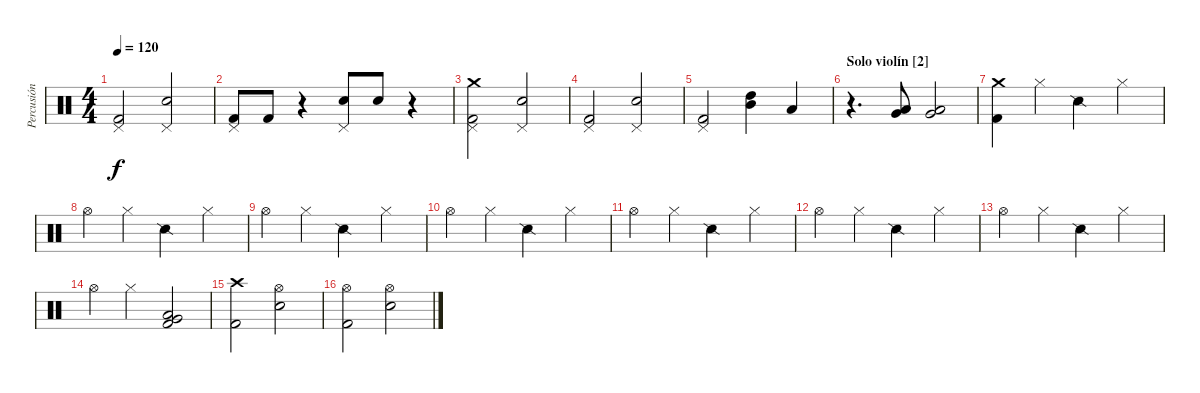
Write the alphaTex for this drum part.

\track ("Percusión" "Percusión") {instrument percussion}
\staff {score}
\articulation defaults
\ts (4 4)
\tempo 120
\clef neutral
\ks c
("Pedal Hi-Hat (hit)" "Kick (hit) 2").2{dy f} ("Pedal Hi-Hat (hit)" "Snare (hit) 2").2 |
("Pedal Hi-Hat (hit)" "Kick (hit) 2").8 "Kick (hit) 2".8 r.4 ("Pedal Hi-Hat (hit)" "Snare (hit) 2").8 "Snare (hit) 2".8 r.4 |
("Crash medium (hit)" "Pedal Hi-Hat (hit)" "Kick (hit) 2").2 ("Pedal Hi-Hat (hit)" "Snare (hit) 2").2 |
("Pedal Hi-Hat (hit)" "Kick (hit) 2").2 ("Pedal Hi-Hat (hit)" "Snare (hit) 2").2 |
("Pedal Hi-Hat (hit)" "Kick (hit) 2").2 ("High Tom (hit)" "Mid Tom (hit)").4 "Low Tom (hit)".4 |
\section ("" "Solo violín [2]")
r.4{d} ("Low Tom (hit)" "Very Low Tom (hit)").8 ("Low Tom (hit)" "Very Low Tom (hit)").2 |
("Crash medium (hit)" "Kick (hit) 2").4 "Hi-Hat (closed)".4 "Snare (side stick) 2".4 "Hi-Hat (closed)".4 |
"Hi-Hat (open)".4 "Hi-Hat (closed)".4 "Snare (side stick) 2".4 "Hi-Hat (closed)".4 |
"Hi-Hat (open)".4 "Hi-Hat (closed)".4 "Snare (side stick) 2".4 "Hi-Hat (closed)".4 |
"Hi-Hat (open)".4 "Hi-Hat (closed)".4 "Snare (side stick) 2".4 "Hi-Hat (closed)".4 |
"Hi-Hat (open)".4 "Hi-Hat (closed)".4 "Snare (side stick) 2".4 "Hi-Hat (closed)".4 |
"Hi-Hat (open)".4 "Hi-Hat (closed)".4 "Snare (side stick) 2".4 "Hi-Hat (closed)".4 |
"Hi-Hat (open)".4 "Hi-Hat (closed)".4 "Snare (side stick) 2".4 "Hi-Hat (closed)".4 |
"Hi-Hat (open)".4 "Hi-Hat (closed)".4 ("Low Floor Tom (hit)" "Very Low Tom (hit)" "Kick (hit) 2").2 |
("Crash high (hit)" "Kick (hit) 2").2 ("Hi-Hat (open)" "Snare (hit) 2").2 |
("Hi-Hat (open)" "Kick (hit) 2").2 ("Hi-Hat (open)" "Snare (hit) 2").2
